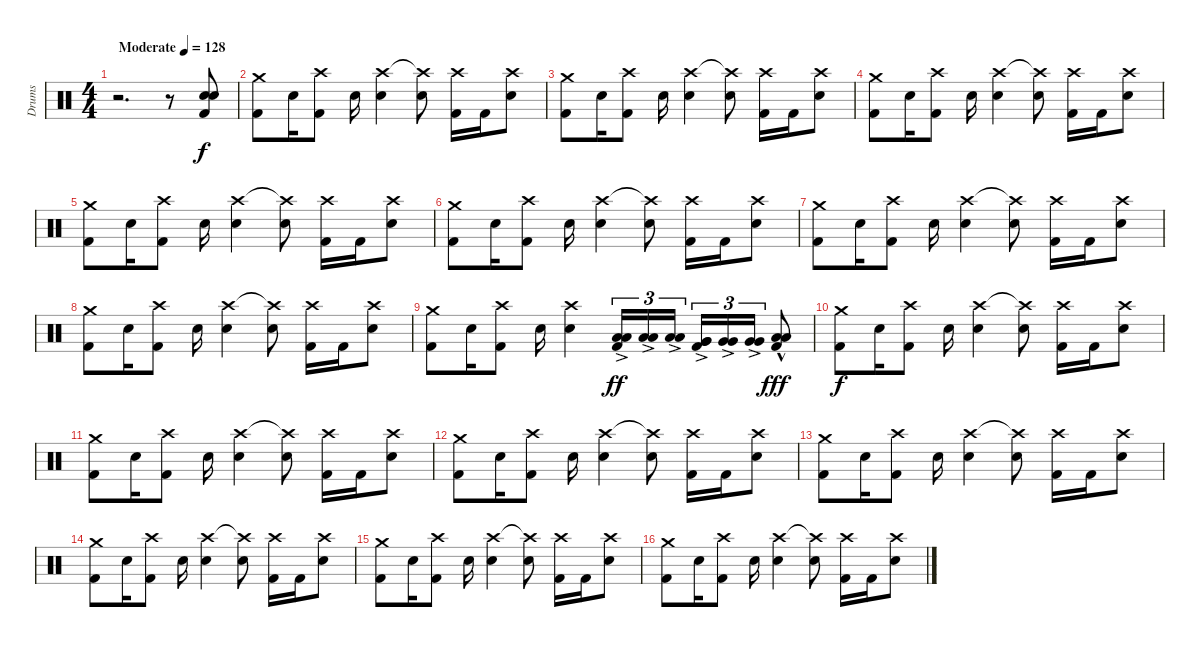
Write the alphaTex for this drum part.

\track ("Drums" "Drums") {instrument percussion}
\staff {score}
\articulation defaults
\ts (4 4)
\tempo (128 "Moderate")
\clef neutral
\ks c
r.2{d dy f} r.8 ("Snare (hit) 2" "Snare (hit) 2" "Kick (hit) 2").8 |
("Crash medium (hit)" "Kick (hit) 2").8 "Snare (hit) 2".16 ("Crash high (hit)" "Kick (hit) 2").8 "Snare (hit) 2".16 ("Crash high (hit)" "Snare (hit) 2").4 ("Crash high (hit)"{t} "Snare (hit) 2").8 ("Crash high (hit)" "Kick (hit) 2").16 "Kick (hit) 2".16 ("Crash high (hit)" "Snare (hit) 2").8 |
("Crash medium (hit)" "Kick (hit) 2").8 "Snare (hit) 2".16 ("Crash high (hit)" "Kick (hit) 2").8 "Snare (hit) 2".16 ("Crash high (hit)" "Snare (hit) 2").4 ("Crash high (hit)"{t} "Snare (hit) 2").8 ("Crash high (hit)" "Kick (hit) 2").16 "Kick (hit) 2".16 ("Crash high (hit)" "Snare (hit) 2").8 |
("Crash medium (hit)" "Kick (hit) 2").8 "Snare (hit) 2".16 ("Crash high (hit)" "Kick (hit) 2").8 "Snare (hit) 2".16 ("Crash high (hit)" "Snare (hit) 2").4 ("Crash high (hit)"{t} "Snare (hit) 2").8 ("Crash high (hit)" "Kick (hit) 2").16 "Kick (hit) 2".16 ("Crash high (hit)" "Snare (hit) 2").8 |
("Crash medium (hit)" "Kick (hit) 2").8 "Snare (hit) 2".16 ("Crash high (hit)" "Kick (hit) 2").8 "Snare (hit) 2".16 ("Crash high (hit)" "Snare (hit) 2").4 ("Crash high (hit)"{t} "Snare (hit) 2").8 ("Crash high (hit)" "Kick (hit) 2").16 "Kick (hit) 2".16 ("Crash high (hit)" "Snare (hit) 2").8 |
("Crash medium (hit)" "Kick (hit) 2").8 "Snare (hit) 2".16 ("Crash high (hit)" "Kick (hit) 2").8 "Snare (hit) 2".16 ("Crash high (hit)" "Snare (hit) 2").4 ("Crash high (hit)"{t} "Snare (hit) 2").8 ("Crash high (hit)" "Kick (hit) 2").16 "Kick (hit) 2".16 ("Crash high (hit)" "Snare (hit) 2").8 |
("Crash medium (hit)" "Kick (hit) 2").8 "Snare (hit) 2".16 ("Crash high (hit)" "Kick (hit) 2").8 "Snare (hit) 2".16 ("Crash high (hit)" "Snare (hit) 2").4 ("Crash high (hit)"{t} "Snare (hit) 2").8 ("Crash high (hit)" "Kick (hit) 2").16 "Kick (hit) 2".16 ("Crash high (hit)" "Snare (hit) 2").8 |
("Crash medium (hit)" "Kick (hit) 2").8 "Snare (hit) 2".16 ("Crash high (hit)" "Kick (hit) 2").8 "Snare (hit) 2".16 ("Crash high (hit)" "Snare (hit) 2").4 ("Crash high (hit)"{t} "Snare (hit) 2").8 ("Crash high (hit)" "Kick (hit) 2").16 "Kick (hit) 2".16 ("Crash high (hit)" "Snare (hit) 2").8 |
("Crash medium (hit)" "Kick (hit) 2").8 "Snare (hit) 2".16 ("Crash high (hit)" "Kick (hit) 2").8 "Snare (hit) 2".16 ("Crash high (hit)" "Snare (hit) 2").4 ("Low Floor Tom (hit)"{ac} "Low Floor Tom (hit)" "Kick (hit) 2").16{tu (3 2) dy ff} ("Low Floor Tom (hit)"{ac} "Low Floor Tom (hit)").16{tu (3 2)} ("Low Floor Tom (hit)"{ac} "Low Floor Tom (hit)").16{tu (3 2)} ("Very Low Tom (hit)"{ac} "Very Low Tom (hit)" "Kick (hit) 2").16{tu (3 2)} ("Very Low Tom (hit)"{ac} "Very Low Tom (hit)").16{tu (3 2)} ("Very Low Tom (hit)"{ac} "Very Low Tom (hit)").16{tu (3 2)} ("Low Tom (hit)"{hac} "Low Tom (hit)" "Kick (hit) 2").8{dy fff} |
("Crash medium (hit)" "Kick (hit) 2").8{dy f} "Snare (hit) 2".16 ("Crash high (hit)" "Kick (hit) 2").8 "Snare (hit) 2".16 ("Crash high (hit)" "Snare (hit) 2").4 ("Crash high (hit)"{t} "Snare (hit) 2").8 ("Crash high (hit)" "Kick (hit) 2").16 "Kick (hit) 2".16 ("Crash high (hit)" "Snare (hit) 2").8 |
("Crash medium (hit)" "Kick (hit) 2").8 "Snare (hit) 2".16 ("Crash high (hit)" "Kick (hit) 2").8 "Snare (hit) 2".16 ("Crash high (hit)" "Snare (hit) 2").4 ("Crash high (hit)"{t} "Snare (hit) 2").8 ("Crash high (hit)" "Kick (hit) 2").16 "Kick (hit) 2".16 ("Crash high (hit)" "Snare (hit) 2").8 |
("Crash medium (hit)" "Kick (hit) 2").8 "Snare (hit) 2".16 ("Crash high (hit)" "Kick (hit) 2").8 "Snare (hit) 2".16 ("Crash high (hit)" "Snare (hit) 2").4 ("Crash high (hit)"{t} "Snare (hit) 2").8 ("Crash high (hit)" "Kick (hit) 2").16 "Kick (hit) 2".16 ("Crash high (hit)" "Snare (hit) 2").8 |
("Crash medium (hit)" "Kick (hit) 2").8 "Snare (hit) 2".16 ("Crash high (hit)" "Kick (hit) 2").8 "Snare (hit) 2".16 ("Crash high (hit)" "Snare (hit) 2").4 ("Crash high (hit)"{t} "Snare (hit) 2").8 ("Crash high (hit)" "Kick (hit) 2").16 "Kick (hit) 2".16 ("Crash high (hit)" "Snare (hit) 2").8 |
("Crash medium (hit)" "Kick (hit) 2").8 "Snare (hit) 2".16 ("Crash high (hit)" "Kick (hit) 2").8 "Snare (hit) 2".16 ("Crash high (hit)" "Snare (hit) 2").4 ("Crash high (hit)"{t} "Snare (hit) 2").8 ("Crash high (hit)" "Kick (hit) 2").16 "Kick (hit) 2".16 ("Crash high (hit)" "Snare (hit) 2").8 |
("Crash medium (hit)" "Kick (hit) 2").8 "Snare (hit) 2".16 ("Crash high (hit)" "Kick (hit) 2").8 "Snare (hit) 2".16 ("Crash high (hit)" "Snare (hit) 2").4 ("Crash high (hit)"{t} "Snare (hit) 2").8 ("Crash high (hit)" "Kick (hit) 2").16 "Kick (hit) 2".16 ("Crash high (hit)" "Snare (hit) 2").8 |
("Crash medium (hit)" "Kick (hit) 2").8 "Snare (hit) 2".16 ("Crash high (hit)" "Kick (hit) 2").8 "Snare (hit) 2".16 ("Crash high (hit)" "Snare (hit) 2").4 ("Crash high (hit)"{t} "Snare (hit) 2").8 ("Crash high (hit)" "Kick (hit) 2").16 "Kick (hit) 2".16 ("Crash high (hit)" "Snare (hit) 2").8
